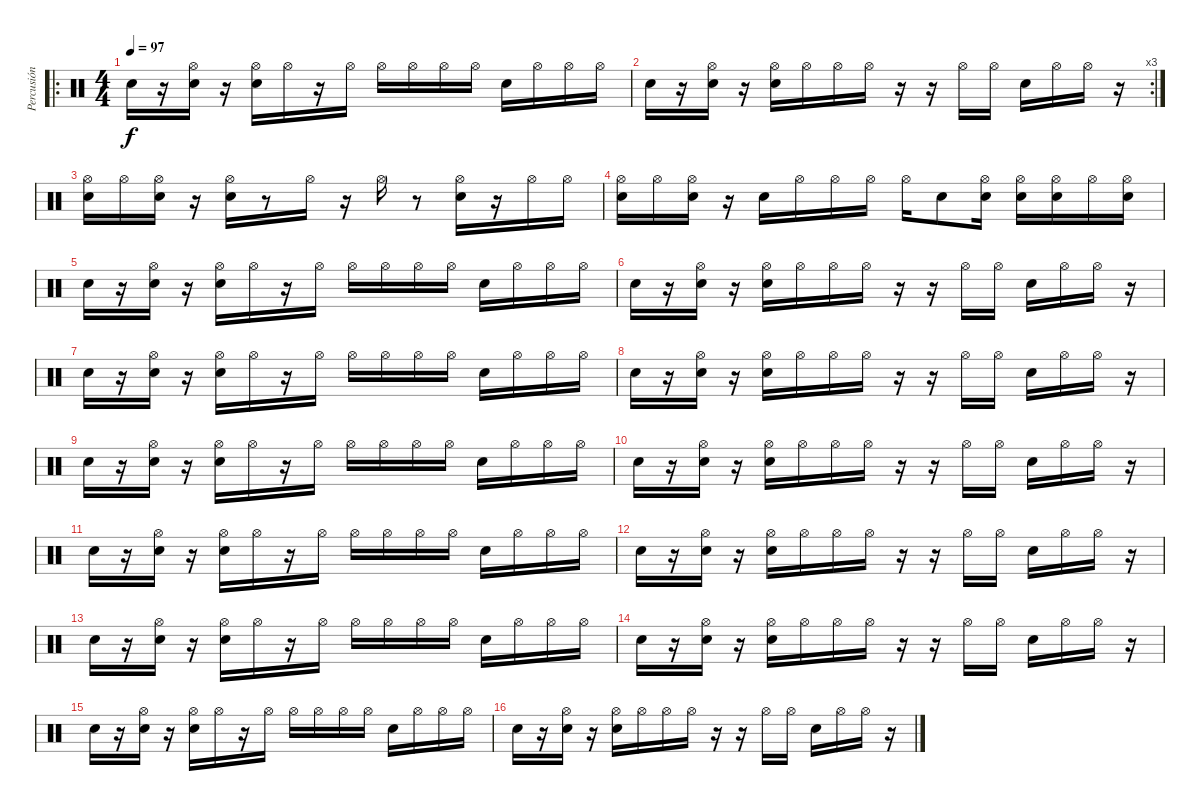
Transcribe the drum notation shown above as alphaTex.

\track ("Percusión" "Percusión") {instrument percussion}
\staff {score}
\articulation defaults
\ro
\ts (4 4)
\tempo 97
\clef neutral
\ks c "Snare (hit) 2".16{dy f}
r.16 ("Hi-Hat (open)" "Snare (hit) 2").16 r.16 ("Hi-Hat (open)" "Electric Snare (hit)").16 "Hi-Hat (open)".16 r.16 "Hi-Hat (open)".16 "Hi-Hat (open)".16 "Hi-Hat (open)".16 "Hi-Hat (open)".16 "Hi-Hat (open)".16 "Electric Snare (hit)".16 "Hi-Hat (open)".16 "Hi-Hat (open)".16 "Hi-Hat (open)".16 |
\rc 3 "Snare (hit) 2".16
r.16 ("Hi-Hat (open)" "Snare (hit) 2").16 r.16 ("Hi-Hat (open)" "Electric Snare (hit)").16 "Hi-Hat (open)".16 "Hi-Hat (open)".16 "Hi-Hat (open)".16 r.16 r.16 "Hi-Hat (open)".16 "Hi-Hat (open)".16 "Electric Snare (hit)".16 "Hi-Hat (open)".16 "Hi-Hat (open)".16 r.16 |
("Hi-Hat (open)" "Snare (hit) 2").16 "Hi-Hat (open)".16 ("Hi-Hat (open)" "Snare (hit) 2").16 r.16 ("Hi-Hat (open)" "Electric Snare (hit)").16 r.8 "Hi-Hat (open)".16 r.16 "Hi-Hat (open)".16 r.8 ("Hi-Hat (open)" "Electric Snare (hit)").16 r.16 "Hi-Hat (open)".16 "Hi-Hat (open)".16 |
("Hi-Hat (open)" "Snare (hit) 2").16 "Hi-Hat (open)".16 ("Hi-Hat (open)" "Snare (hit) 2").16 r.16 "Electric Snare (hit)".16 "Hi-Hat (open)".16 "Hi-Hat (open)".16 "Hi-Hat (open)".16 "Hi-Hat (open)".16 "Snare (hit) 2".8 ("Hi-Hat (open)" "Electric Snare (hit)").16 ("Hi-Hat (open)" "Snare (hit) 2").16 ("Hi-Hat (open)" "Electric Snare (hit)").16 "Hi-Hat (open)".16 ("Hi-Hat (open)" "Electric Snare (hit)").16 |
"Snare (hit) 2".16 r.16 ("Hi-Hat (open)" "Snare (hit) 2").16 r.16 ("Hi-Hat (open)" "Electric Snare (hit)").16 "Hi-Hat (open)".16 r.16 "Hi-Hat (open)".16 "Hi-Hat (open)".16 "Hi-Hat (open)".16 "Hi-Hat (open)".16 "Hi-Hat (open)".16 "Electric Snare (hit)".16 "Hi-Hat (open)".16 "Hi-Hat (open)".16 "Hi-Hat (open)".16 |
"Snare (hit) 2".16 r.16 ("Hi-Hat (open)" "Snare (hit) 2").16 r.16 ("Hi-Hat (open)" "Electric Snare (hit)").16 "Hi-Hat (open)".16 "Hi-Hat (open)".16 "Hi-Hat (open)".16 r.16 r.16 "Hi-Hat (open)".16 "Hi-Hat (open)".16 "Electric Snare (hit)".16 "Hi-Hat (open)".16 "Hi-Hat (open)".16 r.16 |
"Snare (hit) 2".16 r.16 ("Hi-Hat (open)" "Snare (hit) 2").16 r.16 ("Hi-Hat (open)" "Electric Snare (hit)").16 "Hi-Hat (open)".16 r.16 "Hi-Hat (open)".16 "Hi-Hat (open)".16 "Hi-Hat (open)".16 "Hi-Hat (open)".16 "Hi-Hat (open)".16 "Electric Snare (hit)".16 "Hi-Hat (open)".16 "Hi-Hat (open)".16 "Hi-Hat (open)".16 |
"Snare (hit) 2".16 r.16 ("Hi-Hat (open)" "Snare (hit) 2").16 r.16 ("Hi-Hat (open)" "Electric Snare (hit)").16 "Hi-Hat (open)".16 "Hi-Hat (open)".16 "Hi-Hat (open)".16 r.16 r.16 "Hi-Hat (open)".16 "Hi-Hat (open)".16 "Electric Snare (hit)".16 "Hi-Hat (open)".16 "Hi-Hat (open)".16 r.16 |
"Snare (hit) 2".16 r.16 ("Hi-Hat (open)" "Snare (hit) 2").16 r.16 ("Hi-Hat (open)" "Electric Snare (hit)").16 "Hi-Hat (open)".16 r.16 "Hi-Hat (open)".16 "Hi-Hat (open)".16 "Hi-Hat (open)".16 "Hi-Hat (open)".16 "Hi-Hat (open)".16 "Electric Snare (hit)".16 "Hi-Hat (open)".16 "Hi-Hat (open)".16 "Hi-Hat (open)".16 |
"Snare (hit) 2".16 r.16 ("Hi-Hat (open)" "Snare (hit) 2").16 r.16 ("Hi-Hat (open)" "Electric Snare (hit)").16 "Hi-Hat (open)".16 "Hi-Hat (open)".16 "Hi-Hat (open)".16 r.16 r.16 "Hi-Hat (open)".16 "Hi-Hat (open)".16 "Electric Snare (hit)".16 "Hi-Hat (open)".16 "Hi-Hat (open)".16 r.16 |
"Snare (hit) 2".16 r.16 ("Hi-Hat (open)" "Snare (hit) 2").16 r.16 ("Hi-Hat (open)" "Electric Snare (hit)").16 "Hi-Hat (open)".16 r.16 "Hi-Hat (open)".16 "Hi-Hat (open)".16 "Hi-Hat (open)".16 "Hi-Hat (open)".16 "Hi-Hat (open)".16 "Electric Snare (hit)".16 "Hi-Hat (open)".16 "Hi-Hat (open)".16 "Hi-Hat (open)".16 |
"Snare (hit) 2".16 r.16 ("Hi-Hat (open)" "Snare (hit) 2").16 r.16 ("Hi-Hat (open)" "Electric Snare (hit)").16 "Hi-Hat (open)".16 "Hi-Hat (open)".16 "Hi-Hat (open)".16 r.16 r.16 "Hi-Hat (open)".16 "Hi-Hat (open)".16 "Electric Snare (hit)".16 "Hi-Hat (open)".16 "Hi-Hat (open)".16 r.16 |
"Snare (hit) 2".16 r.16 ("Hi-Hat (open)" "Snare (hit) 2").16 r.16 ("Hi-Hat (open)" "Electric Snare (hit)").16 "Hi-Hat (open)".16 r.16 "Hi-Hat (open)".16 "Hi-Hat (open)".16 "Hi-Hat (open)".16 "Hi-Hat (open)".16 "Hi-Hat (open)".16 "Electric Snare (hit)".16 "Hi-Hat (open)".16 "Hi-Hat (open)".16 "Hi-Hat (open)".16 |
"Snare (hit) 2".16 r.16 ("Hi-Hat (open)" "Snare (hit) 2").16 r.16 ("Hi-Hat (open)" "Electric Snare (hit)").16 "Hi-Hat (open)".16 "Hi-Hat (open)".16 "Hi-Hat (open)".16 r.16 r.16 "Hi-Hat (open)".16 "Hi-Hat (open)".16 "Electric Snare (hit)".16 "Hi-Hat (open)".16 "Hi-Hat (open)".16 r.16 |
"Snare (hit) 2".16 r.16 ("Hi-Hat (open)" "Snare (hit) 2").16 r.16 ("Hi-Hat (open)" "Electric Snare (hit)").16 "Hi-Hat (open)".16 r.16 "Hi-Hat (open)".16 "Hi-Hat (open)".16 "Hi-Hat (open)".16 "Hi-Hat (open)".16 "Hi-Hat (open)".16 "Electric Snare (hit)".16 "Hi-Hat (open)".16 "Hi-Hat (open)".16 "Hi-Hat (open)".16 |
"Snare (hit) 2".16 r.16 ("Hi-Hat (open)" "Snare (hit) 2").16 r.16 ("Hi-Hat (open)" "Electric Snare (hit)").16 "Hi-Hat (open)".16 "Hi-Hat (open)".16 "Hi-Hat (open)".16 r.16 r.16 "Hi-Hat (open)".16 "Hi-Hat (open)".16 "Electric Snare (hit)".16 "Hi-Hat (open)".16 "Hi-Hat (open)".16 r.16
